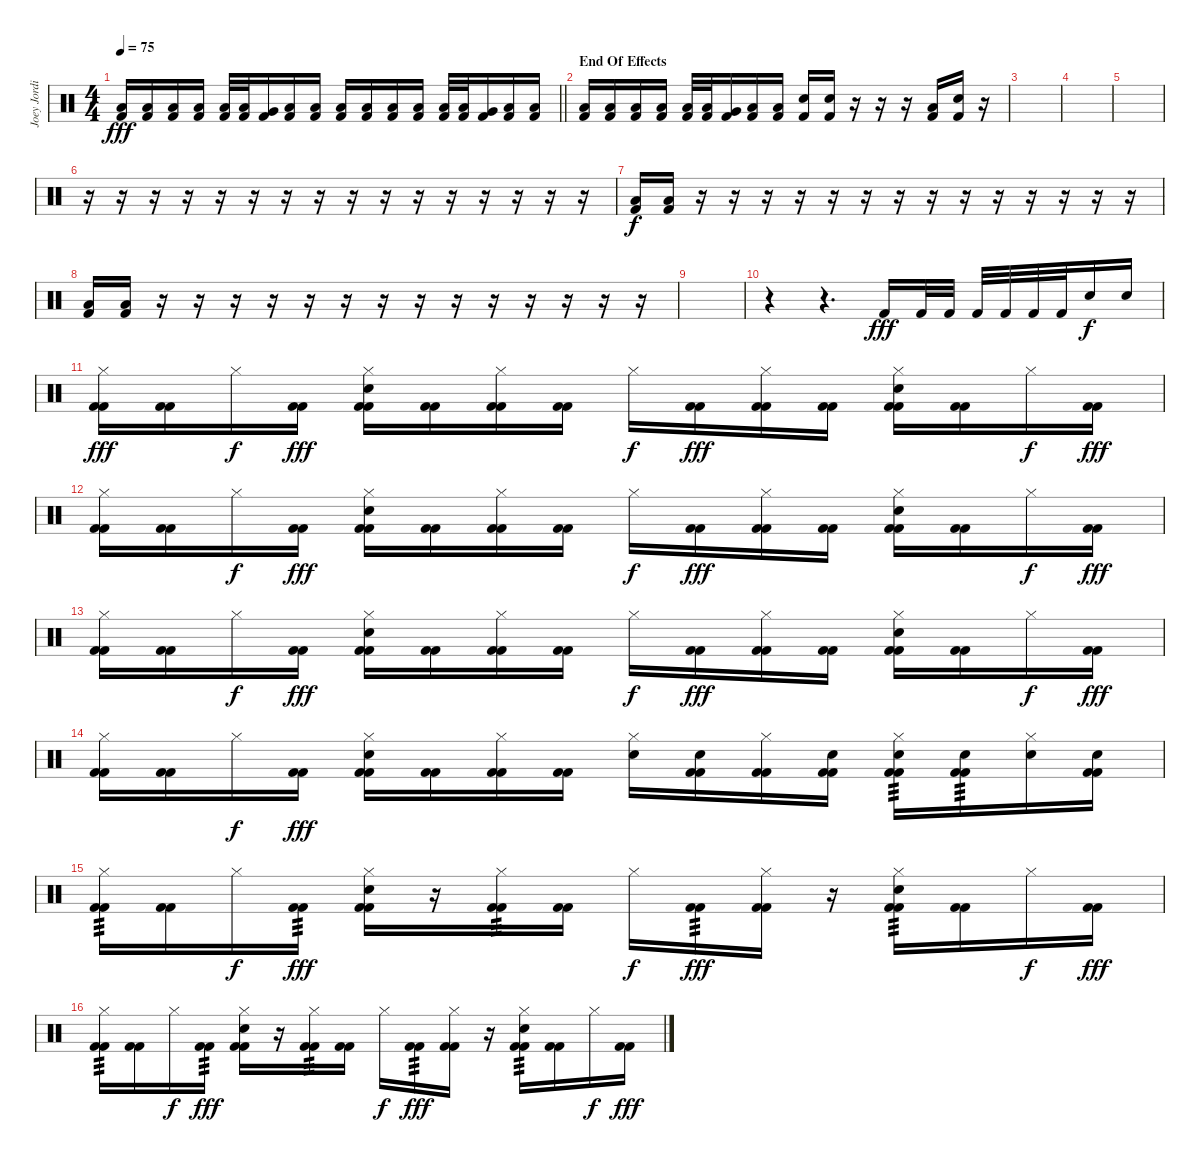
\track ("Joey Jordison" "Joey Jordi") {instrument percussion}
\staff {score}
\articulation defaults
\ts (4 4)
\tempo 75
\clef neutral
\barLineRight lightlight
\ks c
("Low Floor Tom (hit)" "Kick (hit) 2").16{dy fff} ("Low Floor Tom (hit)" "Kick (hit) 2").16 ("Low Floor Tom (hit)" "Kick (hit) 2").16 ("Low Floor Tom (hit)" "Kick (hit) 2").16 ("Low Tom (hit)" "Kick (hit) 2").32 ("Low Tom (hit)" "Kick (hit) 2").32 ("Very Low Tom (hit)" "Kick (hit) 2").16 ("Low Floor Tom (hit)" "Kick (hit) 2").16 ("Low Floor Tom (hit)" "Kick (hit) 2").16 ("Low Floor Tom (hit)" "Kick (hit) 2").16 ("Low Floor Tom (hit)" "Kick (hit) 2").16 ("Low Floor Tom (hit)" "Kick (hit) 2").16 ("Low Floor Tom (hit)" "Kick (hit) 2").16 ("Low Tom (hit)" "Kick (hit) 2").32 ("Low Tom (hit)" "Kick (hit) 2").32 ("Very Low Tom (hit)" "Kick (hit) 2").16 ("Low Floor Tom (hit)" "Kick (hit) 2").16 ("Low Floor Tom (hit)" "Kick (hit) 2").16 |
\section ("" "End Of Effects")
("Low Floor Tom (hit)" "Kick (hit) 2").16 ("Low Floor Tom (hit)" "Kick (hit) 2").16 ("Low Floor Tom (hit)" "Kick (hit) 2").16 ("Low Floor Tom (hit)" "Kick (hit) 2").16 ("Low Tom (hit)" "Kick (hit) 2").32 ("Low Tom (hit)" "Kick (hit) 2").32 ("Very Low Tom (hit)" "Kick (hit) 2").16 ("Low Floor Tom (hit)" "Kick (hit) 2").16 ("Low Floor Tom (hit)" "Kick (hit) 2").16 ("Electric Snare (hit)" "Kick (hit) 2").16 ("Electric Snare (hit)" "Kick (hit) 2").16 r.16 r.16 r.16 ("Low Floor Tom (hit)" "Kick (hit) 2").16 ("Electric Snare (hit)" "Kick (hit) 2").16 r.16 |
|
|
|
r.16 r.16 r.16 r.16 r.16 r.16 r.16 r.16 r.16 r.16 r.16 r.16 r.16 r.16 r.16 r.16 |
("Low Floor Tom (hit)" "Kick (hit) 2").16{dy f} ("Low Floor Tom (hit)" "Kick (hit) 2").16 r.16 r.16 r.16 r.16 r.16 r.16 r.16 r.16 r.16 r.16 r.16 r.16 r.16 r.16 |
("Low Floor Tom (hit)" "Kick (hit) 2").16 ("Low Floor Tom (hit)" "Kick (hit) 2").16 r.16 r.16 r.16 r.16 r.16 r.16 r.16 r.16 r.16 r.16 r.16 r.16 r.16 r.16 |
|
r.4 r.4{d} "Kick (hit) 2".16{dy fff} "Kick (hit) 2".32 "Kick (hit) 2".32 "Kick (hit) 2".32 "Kick (hit) 2".32 "Kick (hit) 2".32 "Kick (hit) 2".32 "Electric Snare (hit)".16{dy f} "Electric Snare (hit)".16 |
("Hi-Hat (closed)" "Kick (hit) 2" "Kick (hit) 2").16{dy fff} ("Kick (hit) 2" "Kick (hit) 2").16 "Hi-Hat (closed)".16{dy f} ("Kick (hit) 2" "Kick (hit) 2").16{dy fff} ("Hi-Hat (closed)" "Electric Snare (hit)" "Kick (hit) 2" "Kick (hit) 2").16 ("Kick (hit) 2" "Kick (hit) 2").16 ("Hi-Hat (closed)" "Kick (hit) 2" "Kick (hit) 2").16 ("Kick (hit) 2" "Kick (hit) 2").16 "Hi-Hat (closed)".16{dy f} ("Kick (hit) 2" "Kick (hit) 2").16{dy fff} ("Hi-Hat (closed)" "Kick (hit) 2" "Kick (hit) 2").16 ("Kick (hit) 2" "Kick (hit) 2").16 ("Hi-Hat (closed)" "Electric Snare (hit)" "Kick (hit) 2" "Kick (hit) 2").16 ("Kick (hit) 2" "Kick (hit) 2").16 "Hi-Hat (closed)".16{dy f} ("Kick (hit) 2" "Kick (hit) 2").16{dy fff} |
("Hi-Hat (closed)" "Kick (hit) 2" "Kick (hit) 2").16 ("Kick (hit) 2" "Kick (hit) 2").16 "Hi-Hat (closed)".16{dy f} ("Kick (hit) 2" "Kick (hit) 2").16{dy fff} ("Hi-Hat (closed)" "Electric Snare (hit)" "Kick (hit) 2" "Kick (hit) 2").16 ("Kick (hit) 2" "Kick (hit) 2").16 ("Hi-Hat (closed)" "Kick (hit) 2" "Kick (hit) 2").16 ("Kick (hit) 2" "Kick (hit) 2").16 "Hi-Hat (closed)".16{dy f} ("Kick (hit) 2" "Kick (hit) 2").16{dy fff} ("Hi-Hat (closed)" "Kick (hit) 2" "Kick (hit) 2").16 ("Kick (hit) 2" "Kick (hit) 2").16 ("Hi-Hat (closed)" "Electric Snare (hit)" "Kick (hit) 2" "Kick (hit) 2").16 ("Kick (hit) 2" "Kick (hit) 2").16 "Hi-Hat (closed)".16{dy f} ("Kick (hit) 2" "Kick (hit) 2").16{dy fff} |
("Hi-Hat (closed)" "Kick (hit) 2" "Kick (hit) 2").16 ("Kick (hit) 2" "Kick (hit) 2").16 "Hi-Hat (closed)".16{dy f} ("Kick (hit) 2" "Kick (hit) 2").16{dy fff} ("Hi-Hat (closed)" "Electric Snare (hit)" "Kick (hit) 2" "Kick (hit) 2").16 ("Kick (hit) 2" "Kick (hit) 2").16 ("Hi-Hat (closed)" "Kick (hit) 2" "Kick (hit) 2").16 ("Kick (hit) 2" "Kick (hit) 2").16 "Hi-Hat (closed)".16{dy f} ("Kick (hit) 2" "Kick (hit) 2").16{dy fff} ("Hi-Hat (closed)" "Kick (hit) 2" "Kick (hit) 2").16 ("Kick (hit) 2" "Kick (hit) 2").16 ("Hi-Hat (closed)" "Electric Snare (hit)" "Kick (hit) 2" "Kick (hit) 2").16 ("Kick (hit) 2" "Kick (hit) 2").16 "Hi-Hat (closed)".16{dy f} ("Kick (hit) 2" "Kick (hit) 2").16{dy fff} |
("Hi-Hat (closed)" "Kick (hit) 2" "Kick (hit) 2").16 ("Kick (hit) 2" "Kick (hit) 2").16 "Hi-Hat (closed)".16{dy f} ("Kick (hit) 2" "Kick (hit) 2").16{dy fff} ("Hi-Hat (closed)" "Electric Snare (hit)" "Kick (hit) 2" "Kick (hit) 2").16 ("Kick (hit) 2" "Kick (hit) 2").16 ("Hi-Hat (closed)" "Kick (hit) 2" "Kick (hit) 2").16 ("Kick (hit) 2" "Kick (hit) 2").16 ("Hi-Hat (closed)" "Electric Snare (hit)").16 ("Electric Snare (hit)" "Kick (hit) 2" "Kick (hit) 2").16 ("Hi-Hat (closed)" "Kick (hit) 2" "Kick (hit) 2").16 ("Electric Snare (hit)" "Kick (hit) 2" "Kick (hit) 2").16 ("Hi-Hat (closed)" "Electric Snare (hit)" "Kick (hit) 2" "Kick (hit) 2").16{tp 3} ("Electric Snare (hit)" "Kick (hit) 2" "Kick (hit) 2").16{tp 3} ("Hi-Hat (closed)" "Electric Snare (hit)").16 ("Electric Snare (hit)" "Kick (hit) 2" "Kick (hit) 2").16 |
("Hi-Hat (closed)" "Kick (hit) 2" "Kick (hit) 2").16{tp 3} ("Kick (hit) 2" "Kick (hit) 2").16 "Hi-Hat (closed)".16{dy f} ("Kick (hit) 2" "Kick (hit) 2").16{tp 3 dy fff} ("Hi-Hat (closed)" "Electric Snare (hit)" "Kick (hit) 2" "Kick (hit) 2").16 r.16 ("Hi-Hat (closed)" "Kick (hit) 2" "Kick (hit) 2").16{tp 3} ("Kick (hit) 2" "Kick (hit) 2").16 "Hi-Hat (closed)".16{dy f} ("Kick (hit) 2" "Kick (hit) 2").16{tp 3 dy fff} ("Hi-Hat (closed)" "Kick (hit) 2" "Kick (hit) 2").16 r.16 ("Hi-Hat (closed)" "Electric Snare (hit)" "Kick (hit) 2" "Kick (hit) 2").16{tp 3} ("Kick (hit) 2" "Kick (hit) 2").16 "Hi-Hat (closed)".16{dy f} ("Kick (hit) 2" "Kick (hit) 2").16{dy fff} |
("Hi-Hat (closed)" "Kick (hit) 2" "Kick (hit) 2").16{tp 3} ("Kick (hit) 2" "Kick (hit) 2").16 "Hi-Hat (closed)".16{dy f} ("Kick (hit) 2" "Kick (hit) 2").16{tp 3 dy fff} ("Hi-Hat (closed)" "Electric Snare (hit)" "Kick (hit) 2" "Kick (hit) 2").16 r.16 ("Hi-Hat (closed)" "Kick (hit) 2" "Kick (hit) 2").16{tp 3} ("Kick (hit) 2" "Kick (hit) 2").16 "Hi-Hat (closed)".16{dy f} ("Kick (hit) 2" "Kick (hit) 2").16{tp 3 dy fff} ("Hi-Hat (closed)" "Kick (hit) 2" "Kick (hit) 2").16 r.16 ("Hi-Hat (closed)" "Electric Snare (hit)" "Kick (hit) 2" "Kick (hit) 2").16{tp 3} ("Kick (hit) 2" "Kick (hit) 2").16 "Hi-Hat (closed)".16{dy f} ("Kick (hit) 2" "Kick (hit) 2").16{dy fff}
